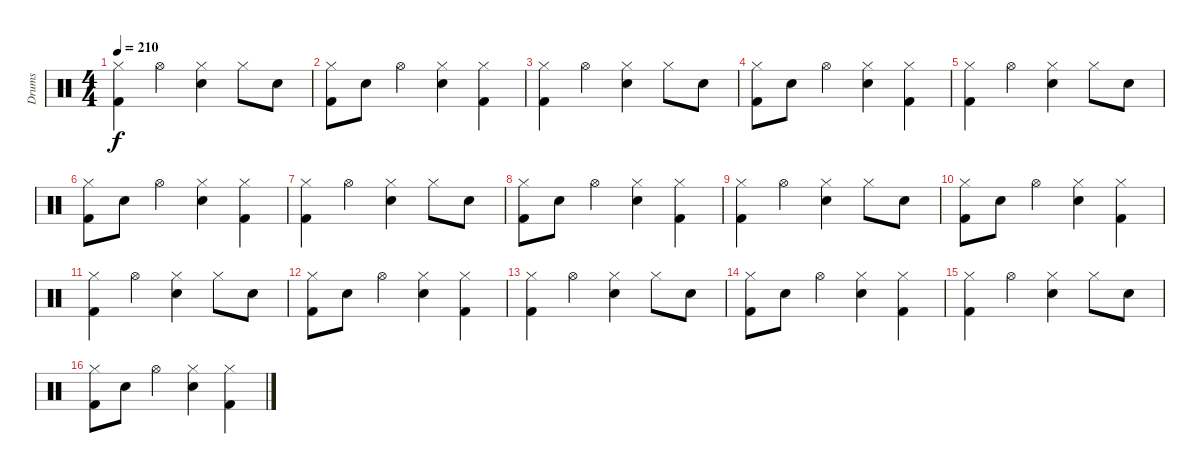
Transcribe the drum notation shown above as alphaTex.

\track ("Drums" "Drums") {instrument percussion}
\staff {score}
\articulation defaults
\ts (4 4)
\tempo 210
\clef neutral
\ks c
("Hi-Hat (closed)" "Kick (hit) 2").4{dy f} "Hi-Hat (open)".4 ("Hi-Hat (closed)" "Electric Snare (hit)").4 "Hi-Hat (closed)".8 "Electric Snare (hit)".8 |
("Hi-Hat (closed)" "Kick (hit) 2").8 "Electric Snare (hit)".8 "Hi-Hat (open)".4 ("Hi-Hat (closed)" "Electric Snare (hit)").4 ("Hi-Hat (closed)" "Kick (hit) 2").4 |
("Hi-Hat (closed)" "Kick (hit) 2").4 "Hi-Hat (open)".4 ("Hi-Hat (closed)" "Electric Snare (hit)").4 "Hi-Hat (closed)".8 "Electric Snare (hit)".8 |
("Hi-Hat (closed)" "Kick (hit) 2").8 "Electric Snare (hit)".8 "Hi-Hat (open)".4 ("Hi-Hat (closed)" "Electric Snare (hit)").4 ("Hi-Hat (closed)" "Kick (hit) 2").4 |
("Hi-Hat (closed)" "Kick (hit) 2").4 "Hi-Hat (open)".4 ("Hi-Hat (closed)" "Electric Snare (hit)").4 "Hi-Hat (closed)".8 "Electric Snare (hit)".8 |
("Hi-Hat (closed)" "Kick (hit) 2").8 "Electric Snare (hit)".8 "Hi-Hat (open)".4 ("Hi-Hat (closed)" "Electric Snare (hit)").4 ("Hi-Hat (closed)" "Kick (hit) 2").4 |
("Hi-Hat (closed)" "Kick (hit) 2").4 "Hi-Hat (open)".4 ("Hi-Hat (closed)" "Electric Snare (hit)").4 "Hi-Hat (closed)".8 "Electric Snare (hit)".8 |
("Hi-Hat (closed)" "Kick (hit) 2").8 "Electric Snare (hit)".8 "Hi-Hat (open)".4 ("Hi-Hat (closed)" "Electric Snare (hit)").4 ("Hi-Hat (closed)" "Kick (hit) 2").4 |
("Hi-Hat (closed)" "Kick (hit) 2").4 "Hi-Hat (open)".4 ("Hi-Hat (closed)" "Electric Snare (hit)").4 "Hi-Hat (closed)".8 "Electric Snare (hit)".8 |
("Hi-Hat (closed)" "Kick (hit) 2").8 "Electric Snare (hit)".8 "Hi-Hat (open)".4 ("Hi-Hat (closed)" "Electric Snare (hit)").4 ("Hi-Hat (closed)" "Kick (hit) 2").4 |
("Hi-Hat (closed)" "Kick (hit) 2").4 "Hi-Hat (open)".4 ("Hi-Hat (closed)" "Electric Snare (hit)").4 "Hi-Hat (closed)".8 "Electric Snare (hit)".8 |
("Hi-Hat (closed)" "Kick (hit) 2").8 "Electric Snare (hit)".8 "Hi-Hat (open)".4 ("Hi-Hat (closed)" "Electric Snare (hit)").4 ("Hi-Hat (closed)" "Kick (hit) 2").4 |
("Hi-Hat (closed)" "Kick (hit) 2").4 "Hi-Hat (open)".4 ("Hi-Hat (closed)" "Electric Snare (hit)").4 "Hi-Hat (closed)".8 "Electric Snare (hit)".8 |
("Hi-Hat (closed)" "Kick (hit) 2").8 "Electric Snare (hit)".8 "Hi-Hat (open)".4 ("Hi-Hat (closed)" "Electric Snare (hit)").4 ("Hi-Hat (closed)" "Kick (hit) 2").4 |
("Hi-Hat (closed)" "Kick (hit) 2").4 "Hi-Hat (open)".4 ("Hi-Hat (closed)" "Electric Snare (hit)").4 "Hi-Hat (closed)".8 "Electric Snare (hit)".8 |
("Hi-Hat (closed)" "Kick (hit) 2").8 "Electric Snare (hit)".8 "Hi-Hat (open)".4 ("Hi-Hat (closed)" "Electric Snare (hit)").4 ("Hi-Hat (closed)" "Kick (hit) 2").4
